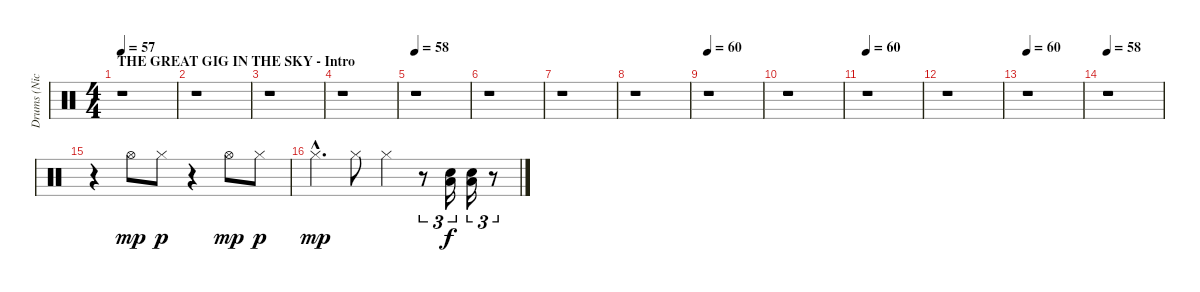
\track ("Drums (Nick)" "Drums (Nic") {instrument percussion}
\staff {score}
\articulation defaults
\ts (4 4)
\section ("" "THE GREAT GIG IN THE SKY - Intro")
\tempo 51
\tempo 57
\clef neutral
\ks c
r.1{dy f volume 12} |
r.1 |
r.1 |
r.1 |
\tempo 58
r.1 |
r.1 |
r.1 |
r.1 |
\tempo 60
r.1 |
r.1 |
\tempo 60
r.1 |
r.1 |
\tempo 60
r.1 |
\tempo 58
r.1 |
r.4 "Hi-Hat (open)".8{dy mp} "Hi-Hat (closed)".8{dy p} r.4 "Hi-Hat (open)".8{dy mp} "Hi-Hat (closed)".8{dy p} |
"Hi-Hat (closed)"{hac}.4{d dy mp} "Hi-Hat (closed)".8 "Hi-Hat (closed)".4 r.8{tu (3 2)} ("Electric Snare (hit)" "Low Tom (hit)").16{tu (3 2) dy f} ("Electric Snare (hit)" "Low Tom (hit)").16{tu (3 2)} r.8{tu (3 2)}
